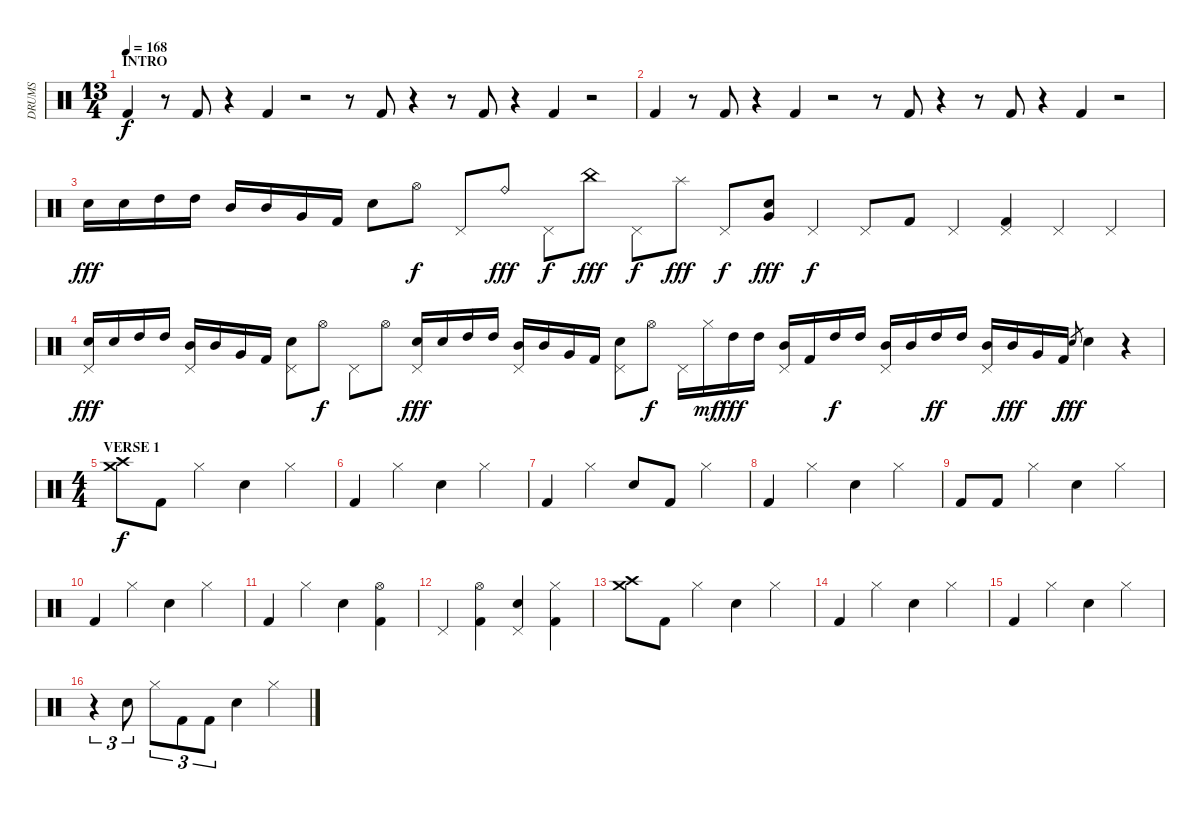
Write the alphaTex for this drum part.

\track ("DRUMS" "DRUMS") {instrument percussion}
\staff {score}
\articulation defaults
\ts (13 4)
\section ("" "INTRO")
\tempo 168
\clef neutral
\ks c "Kick (hit) 2".4{dy f}
r.8 "Kick (hit) 2".8 r.4 "Kick (hit) 2".4 r.2 r.8 "Kick (hit) 2".8 r.4 r.8 "Kick (hit) 2".8 r.4 "Kick (hit) 2".4 r.2 |
"Kick (hit) 2".4 r.8 "Kick (hit) 2".8 r.4 "Kick (hit) 2".4 r.2 r.8 "Kick (hit) 2".8 r.4 r.8 "Kick (hit) 2".8 r.4 "Kick (hit) 2".4 r.2 |
"Electric Snare (hit)".16{dy fff} "Electric Snare (hit)".16 "High Tom (hit)".16 "High Tom (hit)".16 "Mid Tom (hit)".16 "Mid Tom (hit)".16 "Very Low Tom (hit)".16 "Kick (hit) 2".16 "Electric Snare (hit)".8 "Hi-Hat (open)".8{dy f} "Pedal Hi-Hat (hit)".8 "Ride (bell)".8{dy fff} "Pedal Hi-Hat (hit)".8{dy f} "China (hit)".8{dy fff} "Pedal Hi-Hat (hit)".8{dy f} "Splash (hit)".8{dy fff} "Pedal Hi-Hat (hit)".8{dy f} ("Electric Snare (hit)" "Very Low Tom (hit)").8{dy fff} "Pedal Hi-Hat (hit)".4{dy f} "Pedal Hi-Hat (hit)".8 "Kick (hit) 2".8 "Pedal Hi-Hat (hit)".4 ("Pedal Hi-Hat (hit)" "Kick (hit) 2").4 "Pedal Hi-Hat (hit)".4 "Pedal Hi-Hat (hit)".4 |
("Electric Snare (hit)" "Pedal Hi-Hat (hit)").16{dy fff} "Electric Snare (hit)".16 "High Tom (hit)".16 "High Tom (hit)".16 ("Mid Tom (hit)" "Pedal Hi-Hat (hit)").16 "Mid Tom (hit)".16 "Very Low Tom (hit)".16 "Kick (hit) 2".16 ("Electric Snare (hit)" "Pedal Hi-Hat (hit)").8 "Hi-Hat (open)".8{dy f} "Pedal Hi-Hat (hit)".8 "Hi-Hat (open)".8 ("Electric Snare (hit)" "Pedal Hi-Hat (hit)").16{dy fff} "Electric Snare (hit)".16 "High Tom (hit)".16 "High Tom (hit)".16 ("Mid Tom (hit)" "Pedal Hi-Hat (hit)").16 "Mid Tom (hit)".16 "Very Low Tom (hit)".16 "Kick (hit) 2".16 ("Electric Snare (hit)" "Pedal Hi-Hat (hit)").8 "Hi-Hat (open)".8{dy f} "Pedal Hi-Hat (hit)".16 "Hi-Hat (closed)".16{dy mf} "High Tom (hit)".16{dy fff} "High Tom (hit)".16 ("Mid Tom (hit)" "Pedal Hi-Hat (hit)").16 "Kick (hit) 2".16 "High Tom (hit)".16{dy f} "High Tom (hit)".16 ("Mid Tom (hit)" "Pedal Hi-Hat (hit)").16 "Mid Tom (hit)".16 "High Tom (hit)".16{dy ff} "High Tom (hit)".16 ("Mid Tom (hit)" "Pedal Hi-Hat (hit)").16 "Mid Tom (hit)".16{dy fff} "Very Low Tom (hit)".16 "Kick (hit) 2".16{dy f} "Electric Snare (hit)"{h}.8{gr dy fff} "Electric Snare (hit)".4 r.4 |
\ts (4 4)
\section ("" "VERSE 1")
("Crash medium (hit)" "Crash high (hit)").8{dy f} "Kick (hit) 2".8 "Hi-Hat (closed)".4 "Electric Snare (hit)".4 "Hi-Hat (closed)".4 |
"Kick (hit) 2".4 "Hi-Hat (closed)".4 "Electric Snare (hit)".4 "Hi-Hat (closed)".4 |
"Kick (hit) 2".4 "Hi-Hat (closed)".4 "Electric Snare (hit)".8 "Kick (hit) 2".8 "Hi-Hat (closed)".4 |
"Kick (hit) 2".4 "Hi-Hat (closed)".4 "Electric Snare (hit)".4 "Hi-Hat (closed)".4 |
"Kick (hit) 2".8 "Kick (hit) 2".8 "Hi-Hat (closed)".4 "Electric Snare (hit)".4 "Hi-Hat (closed)".4 |
"Kick (hit) 2".4 "Hi-Hat (closed)".4 "Electric Snare (hit)".4 "Hi-Hat (closed)".4 |
"Kick (hit) 2".4 "Hi-Hat (closed)".4 "Electric Snare (hit)".4 ("Hi-Hat (open)" "Kick (hit) 2").4 |
"Pedal Hi-Hat (hit)".4 ("Hi-Hat (open)" "Kick (hit) 2").4 ("Electric Snare (hit)" "Pedal Hi-Hat (hit)").4 ("Hi-Hat (closed)" "Kick (hit) 2").4 |
("Crash medium (hit)" "Crash high (hit)").8 "Kick (hit) 2".8 "Hi-Hat (closed)".4 "Electric Snare (hit)".4 "Hi-Hat (closed)".4 |
"Kick (hit) 2".4 "Hi-Hat (closed)".4 "Electric Snare (hit)".4 "Hi-Hat (closed)".4 |
"Kick (hit) 2".4 "Hi-Hat (closed)".4 "Electric Snare (hit)".4 "Hi-Hat (closed)".4 |
r.4{tu (3 2)} "Electric Snare (hit)".8{tu (3 2)} "Hi-Hat (closed)".8{tu (3 2)} "Kick (hit) 2".8{tu (3 2)} "Kick (hit) 2".8{tu (3 2)} "Electric Snare (hit)".4 "Hi-Hat (closed)".4
